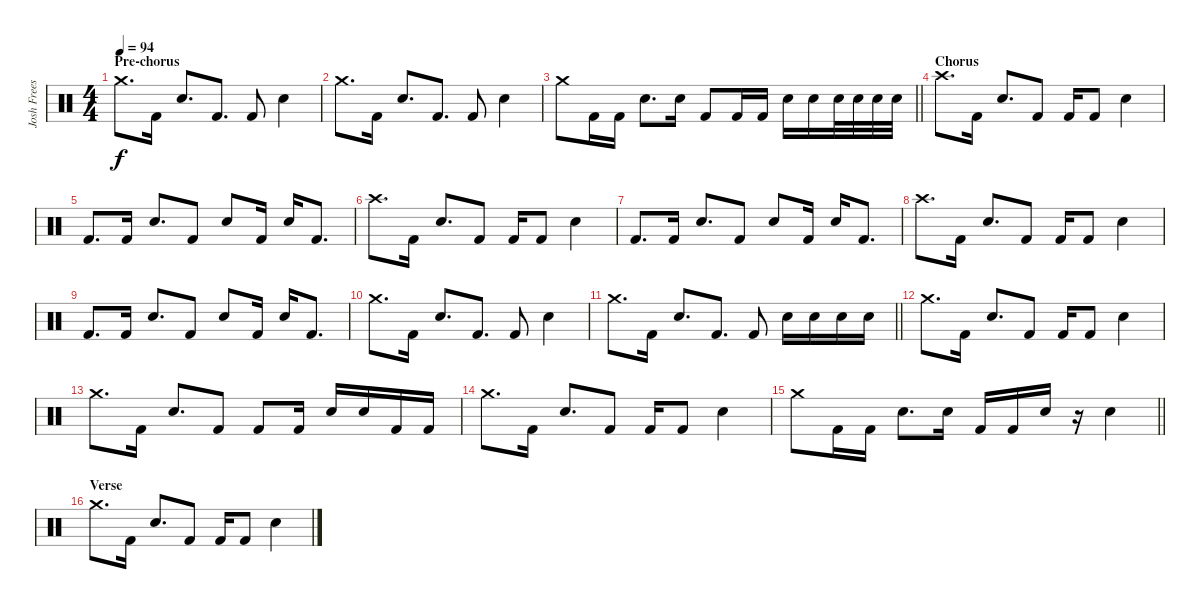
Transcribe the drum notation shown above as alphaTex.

\track ("Josh Freese (Studio Drummer)" "Josh Frees") {instrument percussion}
\staff {score}
\articulation defaults
\ts (4 4)
\section ("" "Pre-chorus")
\tempo 94
\clef neutral
\ks c "Crash medium (hit)".8{d dy f} "Kick (hit) 2".16 "Electric Snare (hit)".8{d} "Kick (hit) 2".8{d} "Kick (hit) 2".8 "Electric Snare (hit)".4
|
"Crash medium (hit)".8{d} "Kick (hit) 2".16 "Electric Snare (hit)".8{d} "Kick (hit) 2".8{d} "Kick (hit) 2".8 "Electric Snare (hit)".4 |
\barLineRight lightlight "Crash medium (hit)".8 "Kick (hit) 2".16 "Kick (hit) 2".16 "Electric Snare (hit)".8{d} "Electric Snare (hit)".16 "Kick (hit) 2".8 "Kick (hit) 2".16 "Kick (hit) 2".16 "Electric Snare (hit)".16 "Electric Snare (hit)".16 "Electric Snare (hit)".32 "Electric Snare (hit)".32 "Electric Snare (hit)".32 "Electric Snare (hit)".32
|
\section ("" "Chorus")
"Crash high (hit)".8{d} "Kick (hit) 2".16 "Electric Snare (hit)".8{d} "Kick (hit) 2".8 "Kick (hit) 2".16 "Kick (hit) 2".8 "Electric Snare (hit)".4 |
"Kick (hit) 2".8{d} "Kick (hit) 2".16 "Electric Snare (hit)".8{d} "Kick (hit) 2".8 "Electric Snare (hit)".8 "Kick (hit) 2".16 "Electric Snare (hit)".16 "Kick (hit) 2".8{d} |
"Crash high (hit)".8{d} "Kick (hit) 2".16 "Electric Snare (hit)".8{d} "Kick (hit) 2".8 "Kick (hit) 2".16 "Kick (hit) 2".8 "Electric Snare (hit)".4 |
"Kick (hit) 2".8{d} "Kick (hit) 2".16 "Electric Snare (hit)".8{d} "Kick (hit) 2".8 "Electric Snare (hit)".8 "Kick (hit) 2".16 "Electric Snare (hit)".16 "Kick (hit) 2".8{d} |
"Crash high (hit)".8{d} "Kick (hit) 2".16 "Electric Snare (hit)".8{d} "Kick (hit) 2".8 "Kick (hit) 2".16 "Kick (hit) 2".8 "Electric Snare (hit)".4 |
"Kick (hit) 2".8{d} "Kick (hit) 2".16 "Electric Snare (hit)".8{d} "Kick (hit) 2".8 "Electric Snare (hit)".8 "Kick (hit) 2".16 "Electric Snare (hit)".16 "Kick (hit) 2".8{d} |
"Crash medium (hit)".8{d} "Kick (hit) 2".16 "Electric Snare (hit)".8{d} "Kick (hit) 2".8{d} "Kick (hit) 2".8 "Electric Snare (hit)".4 |
\barLineRight lightlight "Crash medium (hit)".8{d} "Kick (hit) 2".16 "Electric Snare (hit)".8{d} "Kick (hit) 2".8{d} "Kick (hit) 2".8 "Electric Snare (hit)".16 "Electric Snare (hit)".16 "Electric Snare (hit)".16 "Electric Snare (hit)".16
|
"Crash medium (hit)".8{d} "Kick (hit) 2".16 "Electric Snare (hit)".8{d} "Kick (hit) 2".8 "Kick (hit) 2".16 "Kick (hit) 2".8 "Electric Snare (hit)".4 |
"Crash medium (hit)".8{d} "Kick (hit) 2".16 "Electric Snare (hit)".8{d} "Kick (hit) 2".8 "Kick (hit) 2".8 "Kick (hit) 2".16 "Electric Snare (hit)".16 "Electric Snare (hit)".16 "Kick (hit) 2".16 "Kick (hit) 2".16 |
"Crash medium (hit)".8{d} "Kick (hit) 2".16 "Electric Snare (hit)".8{d} "Kick (hit) 2".8 "Kick (hit) 2".16 "Kick (hit) 2".8 "Electric Snare (hit)".4 |
\barLineRight lightlight "Crash medium (hit)".8 "Kick (hit) 2".16 "Kick (hit) 2".16 "Electric Snare (hit)".8{d} "Electric Snare (hit)".16 "Kick (hit) 2".16 "Kick (hit) 2".16 "Electric Snare (hit)".16
r.16 "Electric Snare (hit)".4 |
\section ("" "Verse")
"Crash medium (hit)".8{d} "Kick (hit) 2".16 "Electric Snare (hit)".8{d} "Kick (hit) 2".8 "Kick (hit) 2".16 "Kick (hit) 2".8 "Electric Snare (hit)".4
